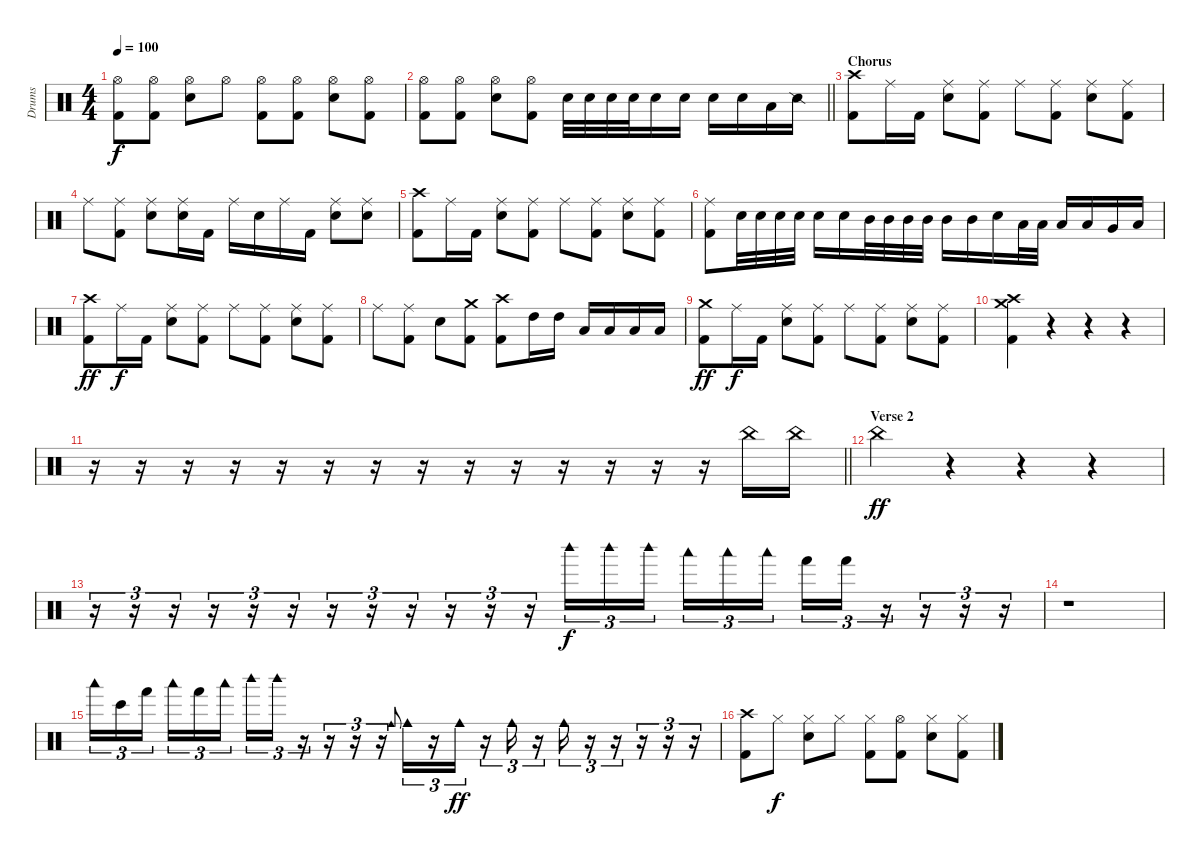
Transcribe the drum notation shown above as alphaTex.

\track ("Drums" "Drums") {instrument percussion}
\staff {score}
\articulation defaults
\ts (4 4)
\tempo 100
\clef neutral
\ks c
("Hi-Hat (open)" "Kick (hit) 2").8{dy f} ("Hi-Hat (open)" "Kick (hit) 2").8 ("Hi-Hat (open)" "Snare (hit) 2").8 "Hi-Hat (open)".8 ("Hi-Hat (open)" "Kick (hit) 2").8 ("Hi-Hat (open)" "Kick (hit) 2").8 ("Hi-Hat (open)" "Snare (hit) 2").8 ("Hi-Hat (open)" "Kick (hit) 2").8 |
\barLineRight lightlight
("Hi-Hat (open)" "Kick (hit) 2").8 ("Hi-Hat (open)" "Kick (hit) 2").8 ("Hi-Hat (open)" "Snare (hit) 2").8 ("Hi-Hat (open)" "Kick (hit) 2").8 "Snare (hit) 2".32 "Snare (hit) 2".32 "Snare (hit) 2".32 "Snare (hit) 2".32 "Snare (hit) 2".16 "Snare (hit) 2".16 "Snare (hit) 2".16 "Snare (hit) 2".16 "Low Tom (hit)".16 "Snare (side stick) 2".16 |
\section ("" "Chorus")
("Crash high (hit)" "Kick (hit) 2").8 "Ride (middle)".16 "Kick (hit) 2".16 ("Ride (middle)" "Snare (hit) 2").8 ("Ride (middle)" "Kick (hit) 2").8 "Ride (middle)".8 ("Ride (middle)" "Kick (hit) 2").8 ("Ride (middle)" "Snare (hit) 2").8 ("Ride (middle)" "Kick (hit) 2").8 |
"Ride (middle)".8 ("Ride (middle)" "Kick (hit) 2").8 ("Ride (middle)" "Snare (hit) 2").8 ("Ride (middle)" "Snare (hit) 2").16 "Kick (hit) 2".16 "Ride (middle)".16 "Snare (hit) 2".16 "Ride (middle)".16 "Kick (hit) 2".16 ("Ride (middle)" "Snare (hit) 2").8 ("Ride (middle)" "Snare (hit) 2").8 |
("Crash high (hit)" "Kick (hit) 2").8 "Ride (middle)".16 "Kick (hit) 2".16 ("Ride (middle)" "Snare (hit) 2").8 ("Ride (middle)" "Kick (hit) 2").8 "Ride (middle)".8 ("Ride (middle)" "Kick (hit) 2").8 ("Ride (middle)" "Snare (hit) 2").8 ("Ride (middle)" "Kick (hit) 2").8 |
("Ride (middle)" "Kick (hit) 2").8 "Snare (hit) 2".32 "Snare (hit) 2".32 "Snare (hit) 2".32 "Snare (hit) 2".32 "Snare (hit) 2".16 "Snare (hit) 2".16 "Mid Tom (hit)".32 "Mid Tom (hit)".32 "Mid Tom (hit)".32 "Mid Tom (hit)".32 "Mid Tom (hit)".16 "Mid Tom (hit)".16 "Snare (hit) 2".16 "Low Tom (hit)".32 "Low Tom (hit)".32 "Low Tom (hit)".16 "Low Tom (hit)".16 "Very Low Tom (hit)".16 "Low Floor Tom (hit)".16 |
("Crash high (hit)" "Kick (hit) 2").8{dy ff} "Ride (middle)".16{dy f} "Kick (hit) 2".16 ("Ride (middle)" "Snare (hit) 2").8 ("Ride (middle)" "Kick (hit) 2").8 "Ride (middle)".8 ("Ride (middle)" "Kick (hit) 2").8 ("Ride (middle)" "Snare (hit) 2").8 ("Ride (middle)" "Kick (hit) 2").8 |
"Ride (middle)".8 ("Ride (middle)" "Kick (hit) 2").8 "Snare (hit) 2".8 ("Crash medium (hit)" "Kick (hit) 2").8 ("Crash high (hit)" "Kick (hit) 2").8 "High Tom (hit)".16 "High Tom (hit)".16 "Low Tom (hit)".16 "Low Tom (hit)".16 "Low Floor Tom (hit)".16 "Low Floor Tom (hit)".16 |
("Crash medium (hit)" "Kick (hit) 2").8{dy ff} "Ride (middle)".16{dy f} "Kick (hit) 2".16 ("Ride (middle)" "Snare (hit) 2").8 ("Ride (middle)" "Kick (hit) 2").8 "Ride (middle)".8 ("Ride (middle)" "Kick (hit) 2").8 ("Ride (middle)" "Snare (hit) 2").8 ("Ride (middle)" "Kick (hit) 2").8 |
("Crash medium (hit)" "Crash high (hit)" "Kick (hit) 2").4 r.4 r.4 r.4 |
\barLineRight lightlight
r.16 r.16 r.16 r.16 r.16 r.16 r.16 r.16 r.16 r.16 r.16 r.16 r.16 r.16 "China (hit)".16 "China (hit)".16 |
\section ("" "Verse 2")
"China (hit)".4{dy ff} r.4 r.4 r.4 |
r.16{tu (3 2)} r.16{tu (3 2)} r.16{tu (3 2)} r.16{tu (3 2)} r.16{tu (3 2)} r.16{tu (3 2)} r.16{tu (3 2)} r.16{tu (3 2)} r.16{tu (3 2)} r.16{tu (3 2)} r.16{tu (3 2)} r.16{tu (3 2)} "Woodblock high (hit)".16{tu (3 2) dy f} "Woodblock high (hit)".16{tu (3 2)} "Woodblock high (hit)".16{tu (3 2) beam splitsecondary} "Woodblock low (hit)".16{tu (3 2)} "Woodblock low (hit)".16{tu (3 2)} "Woodblock low (hit)".16{tu (3 2)} "Hand (hit)".16{tu (3 2)} "Hand (hit)".16{tu (3 2)} r.16{tu (3 2)} r.16{tu (3 2)} r.16{tu (3 2)} r.16{tu (3 2)} |
r.1 |
"Woodblock low (hit)".16{tu (3 2)} "Bongo High (hit)".16{tu (3 2)} "Hand (hit)".16{tu (3 2) beam splitsecondary} "Woodblock low (hit)".16{tu (3 2)} "Hand (hit)".16{tu (3 2)} "Woodblock low (hit)".16{tu (3 2)} "Woodblock high (hit)".16{tu (3 2)} "Woodblock high (hit)".16{tu (3 2)} r.16{tu (3 2)} r.16{tu (3 2)} r.16{tu (3 2)} r.16{tu (3 2)} "Cowbell medium (hit)".8{gr onbeat} "Cowbell medium (hit)".16{tu (3 2)} r.16{tu (3 2)} "Cowbell medium (hit)".16{tu (3 2) dy ff} r.16{tu (3 2)} "Cowbell medium (hit)".16{tu (3 2)} r.16{tu (3 2)} "Cowbell medium (hit)".16{tu (3 2)} r.16{tu (3 2)} r.16{tu (3 2)} r.16{tu (3 2)} r.16{tu (3 2)} r.16{tu (3 2)} |
("Crash high (hit)" "Kick (hit) 2").8 "Hi-Hat (closed)".8{dy f} ("Hi-Hat (closed)" "Snare (hit) 2").8 "Hi-Hat (closed)".8 ("Hi-Hat (closed)" "Kick (hit) 2").8 ("Hi-Hat (open)" "Kick (hit) 2").8 ("Hi-Hat (closed)" "Snare (hit) 2").8 ("Hi-Hat (closed)" "Kick (hit) 2").8
